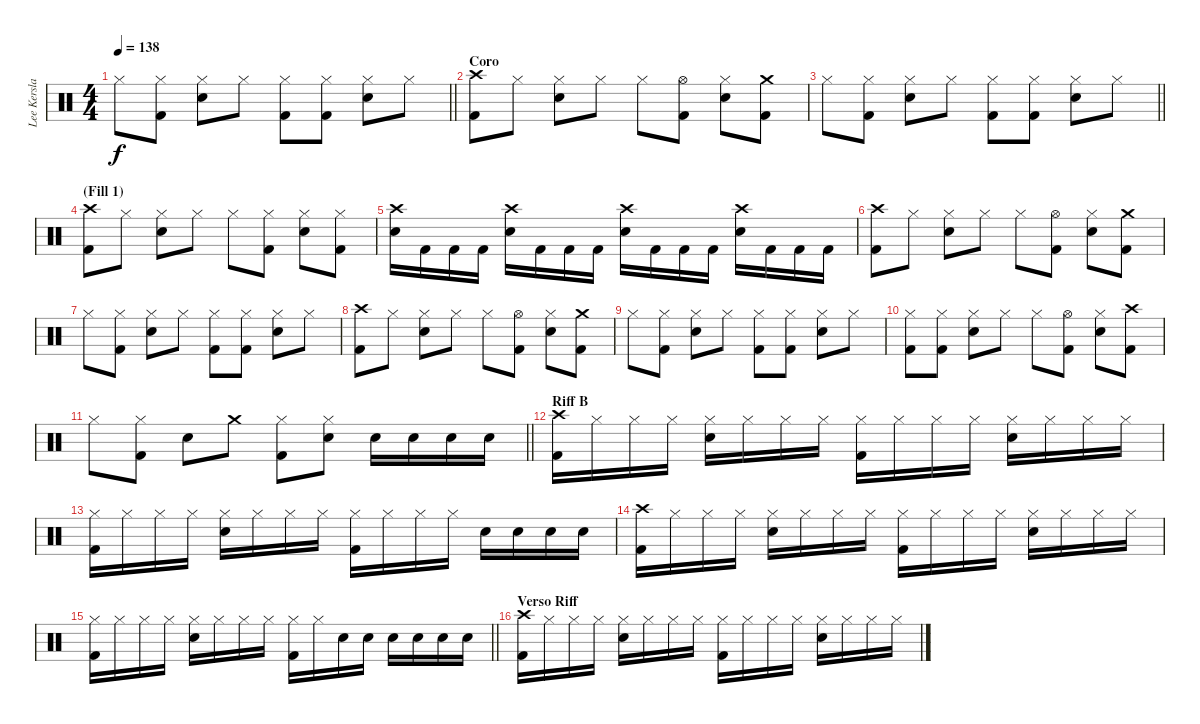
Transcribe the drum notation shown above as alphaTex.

\track ("Lee Kerslake" "Lee Kersla") {instrument percussion}
\staff {score}
\articulation defaults
\ts (4 4)
\tempo 138
\clef neutral
\barLineRight lightlight
\ks c "Hi-Hat (closed)".8{dy f}
("Hi-Hat (closed)" "Kick (hit) 2").8 ("Hi-Hat (closed)" "Snare (hit) 2").8 "Hi-Hat (closed)".8 ("Hi-Hat (closed)" "Kick (hit) 2").8 ("Hi-Hat (closed)" "Kick (hit) 2").8 ("Hi-Hat (closed)" "Snare (hit) 2").8 "Hi-Hat (closed)".8 |
\section ("" "Coro")
("Crash high (hit)" "Kick (hit) 2").8 "Hi-Hat (closed)".8 ("Hi-Hat (closed)" "Snare (hit) 2").8 "Hi-Hat (closed)".8 "Hi-Hat (closed)".8 ("Hi-Hat (open)" "Kick (hit) 2").8 ("Hi-Hat (closed)" "Snare (hit) 2").8 ("Crash medium (hit)" "Kick (hit) 2").8 |
\barLineRight lightlight "Hi-Hat (closed)".8
("Hi-Hat (closed)" "Kick (hit) 2").8 ("Hi-Hat (closed)" "Snare (hit) 2").8 "Hi-Hat (closed)".8 ("Hi-Hat (closed)" "Kick (hit) 2").8 ("Hi-Hat (closed)" "Kick (hit) 2").8 ("Hi-Hat (closed)" "Snare (hit) 2").8 "Hi-Hat (closed)".8 |
\section ("" "(Fill 1)")
("Crash high (hit)" "Kick (hit) 2").8 "Hi-Hat (closed)".8 ("Hi-Hat (closed)" "Snare (hit) 2").8 "Hi-Hat (closed)".8 "Hi-Hat (closed)".8 ("Hi-Hat (closed)" "Kick (hit) 2").8 ("Hi-Hat (closed)" "Snare (hit) 2").8 ("Hi-Hat (closed)" "Kick (hit) 2").8 |
("Snare (hit) 2" "Crash high (hit)").16 "Kick (hit) 2".16 "Kick (hit) 2".16 "Kick (hit) 2".16 ("Snare (hit) 2" "Crash high (hit)").16 "Kick (hit) 2".16 "Kick (hit) 2".16 "Kick (hit) 2".16 ("Snare (hit) 2" "Crash high (hit)").16 "Kick (hit) 2".16 "Kick (hit) 2".16 "Kick (hit) 2".16 ("Snare (hit) 2" "Crash high (hit)").16 "Kick (hit) 2".16 "Kick (hit) 2".16 "Kick (hit) 2".16 |
("Crash high (hit)" "Kick (hit) 2").8 "Hi-Hat (closed)".8 ("Hi-Hat (closed)" "Snare (hit) 2").8 "Hi-Hat (closed)".8 "Hi-Hat (closed)".8 ("Hi-Hat (open)" "Kick (hit) 2").8 ("Hi-Hat (closed)" "Snare (hit) 2").8 ("Crash medium (hit)" "Kick (hit) 2").8 |
"Hi-Hat (closed)".8 ("Hi-Hat (closed)" "Kick (hit) 2").8 ("Hi-Hat (closed)" "Snare (hit) 2").8 "Hi-Hat (closed)".8 ("Hi-Hat (closed)" "Kick (hit) 2").8 ("Hi-Hat (closed)" "Kick (hit) 2").8 ("Hi-Hat (closed)" "Snare (hit) 2").8 "Hi-Hat (closed)".8 |
("Crash high (hit)" "Kick (hit) 2").8 "Hi-Hat (closed)".8 ("Hi-Hat (closed)" "Snare (hit) 2").8 "Hi-Hat (closed)".8 "Hi-Hat (closed)".8 ("Hi-Hat (open)" "Kick (hit) 2").8 ("Hi-Hat (closed)" "Snare (hit) 2").8 ("Crash medium (hit)" "Kick (hit) 2").8 |
"Hi-Hat (closed)".8 ("Hi-Hat (closed)" "Kick (hit) 2").8 ("Hi-Hat (closed)" "Snare (hit) 2").8 "Hi-Hat (closed)".8 ("Hi-Hat (closed)" "Kick (hit) 2").8 ("Hi-Hat (closed)" "Kick (hit) 2").8 ("Hi-Hat (closed)" "Snare (hit) 2").8 "Hi-Hat (closed)".8 |
("Hi-Hat (closed)" "Kick (hit) 2").8 ("Hi-Hat (closed)" "Kick (hit) 2").8 ("Hi-Hat (closed)" "Snare (hit) 2").8 "Hi-Hat (closed)".8 "Hi-Hat (closed)".8 ("Hi-Hat (open)" "Kick (hit) 2").8 ("Hi-Hat (closed)" "Snare (hit) 2").8 ("Crash high (hit)" "Kick (hit) 2").8 |
\barLineRight lightlight "Hi-Hat (closed)".8
("Hi-Hat (closed)" "Kick (hit) 2").8 "Snare (hit) 2".8 "Crash medium (hit)".8 ("Hi-Hat (closed)" "Kick (hit) 2").8 ("Hi-Hat (closed)" "Snare (hit) 2").8 "Snare (hit) 2".16 "Snare (hit) 2".16 "Snare (hit) 2".16 "Snare (hit) 2".16 |
\section ("" "Riff B")
("Crash high (hit)" "Kick (hit) 2").16 "Hi-Hat (closed)".16 "Hi-Hat (closed)".16 "Hi-Hat (closed)".16 ("Hi-Hat (closed)" "Snare (hit) 2").16 "Hi-Hat (closed)".16 "Hi-Hat (closed)".16 "Hi-Hat (closed)".16 ("Hi-Hat (closed)" "Kick (hit) 2").16 "Hi-Hat (closed)".16 "Hi-Hat (closed)".16 "Hi-Hat (closed)".16 ("Hi-Hat (closed)" "Snare (hit) 2").16 "Hi-Hat (closed)".16 "Hi-Hat (closed)".16 "Hi-Hat (closed)".16 |
("Hi-Hat (closed)" "Kick (hit) 2").16 "Hi-Hat (closed)".16 "Hi-Hat (closed)".16 "Hi-Hat (closed)".16 ("Hi-Hat (closed)" "Snare (hit) 2").16 "Hi-Hat (closed)".16 "Hi-Hat (closed)".16 "Hi-Hat (closed)".16 ("Hi-Hat (closed)" "Kick (hit) 2").16 "Hi-Hat (closed)".16 "Hi-Hat (closed)".16 "Hi-Hat (closed)".16 "Snare (hit) 2".16 "Snare (hit) 2".16 "Snare (hit) 2".16 "Snare (hit) 2".16 |
("Crash high (hit)" "Kick (hit) 2").16 "Hi-Hat (closed)".16 "Hi-Hat (closed)".16 "Hi-Hat (closed)".16 ("Hi-Hat (closed)" "Snare (hit) 2").16 "Hi-Hat (closed)".16 "Hi-Hat (closed)".16 "Hi-Hat (closed)".16 ("Hi-Hat (closed)" "Kick (hit) 2").16 "Hi-Hat (closed)".16 "Hi-Hat (closed)".16 "Hi-Hat (closed)".16 ("Hi-Hat (closed)" "Snare (hit) 2").16 "Hi-Hat (closed)".16 "Hi-Hat (closed)".16 "Hi-Hat (closed)".16 |
\barLineRight lightlight
("Hi-Hat (closed)" "Kick (hit) 2").16 "Hi-Hat (closed)".16 "Hi-Hat (closed)".16 "Hi-Hat (closed)".16 ("Hi-Hat (closed)" "Snare (hit) 2").16 "Hi-Hat (closed)".16 "Hi-Hat (closed)".16 "Hi-Hat (closed)".16 ("Hi-Hat (closed)" "Kick (hit) 2").16 "Hi-Hat (closed)".16 "Snare (hit) 2".16 "Snare (hit) 2".16 "Snare (hit) 2".16 "Snare (hit) 2".16 "Snare (hit) 2".16 "Snare (hit) 2".16 |
\section ("" "Verso Riff")
("Crash high (hit)" "Kick (hit) 2").16 "Hi-Hat (closed)".16 "Hi-Hat (closed)".16 "Hi-Hat (closed)".16 ("Hi-Hat (closed)" "Snare (hit) 2").16 "Hi-Hat (closed)".16 "Hi-Hat (closed)".16 "Hi-Hat (closed)".16 ("Hi-Hat (closed)" "Kick (hit) 2").16 "Hi-Hat (closed)".16 "Hi-Hat (closed)".16 "Hi-Hat (closed)".16 ("Hi-Hat (closed)" "Snare (hit) 2").16 "Hi-Hat (closed)".16 "Hi-Hat (closed)".16 "Hi-Hat (closed)".16
